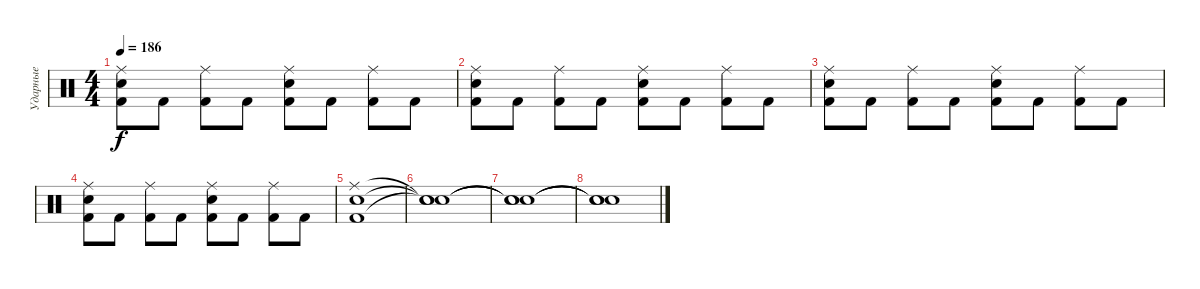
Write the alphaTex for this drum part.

\track ("Ударные" "Ударные") {instrument percussion}
\staff {score}
\articulation defaults
\ts (4 4)
\tempo 186
\clef neutral
\ks c
("Ride (middle)" "Snare (hit) 2" "Kick (hit) 2").8{dy f} "Kick (hit) 2".8 ("Ride (middle)" "Kick (hit) 2").8 "Kick (hit) 2".8 ("Ride (middle)" "Snare (hit) 2" "Kick (hit) 2").8 "Kick (hit) 2".8 ("Ride (middle)" "Kick (hit) 2").8 "Kick (hit) 2".8 |
("Ride (middle)" "Snare (hit) 2" "Kick (hit) 2").8 "Kick (hit) 2".8 ("Ride (middle)" "Kick (hit) 2").8 "Kick (hit) 2".8 ("Ride (middle)" "Snare (hit) 2" "Kick (hit) 2").8 "Kick (hit) 2".8 ("Ride (middle)" "Kick (hit) 2").8 "Kick (hit) 2".8 |
("Ride (middle)" "Snare (hit) 2" "Kick (hit) 2").8 "Kick (hit) 2".8 ("Ride (middle)" "Kick (hit) 2").8 "Kick (hit) 2".8 ("Ride (middle)" "Snare (hit) 2" "Kick (hit) 2").8 "Kick (hit) 2".8 ("Ride (middle)" "Kick (hit) 2").8 "Kick (hit) 2".8 |
("Ride (middle)" "Snare (hit) 2" "Kick (hit) 2").8 "Kick (hit) 2".8 ("Ride (middle)" "Kick (hit) 2").8 "Kick (hit) 2".8 ("Ride (middle)" "Snare (hit) 2" "Kick (hit) 2").8 "Kick (hit) 2".8 ("Ride (middle)" "Kick (hit) 2").8 "Kick (hit) 2".8 |
("Ride (middle)" "Snare (hit) 2" "Kick (hit) 2").1 |
("Snare (hit)"{t} "Snare (hit)"{t} "Snare (hit)"{t}).1 |
("Snare (hit)"{t} "Snare (hit)"{t} "Snare (hit)"{t}).1 |
("Snare (hit)"{t} "Snare (hit)"{t} "Snare (hit)"{t}).1
